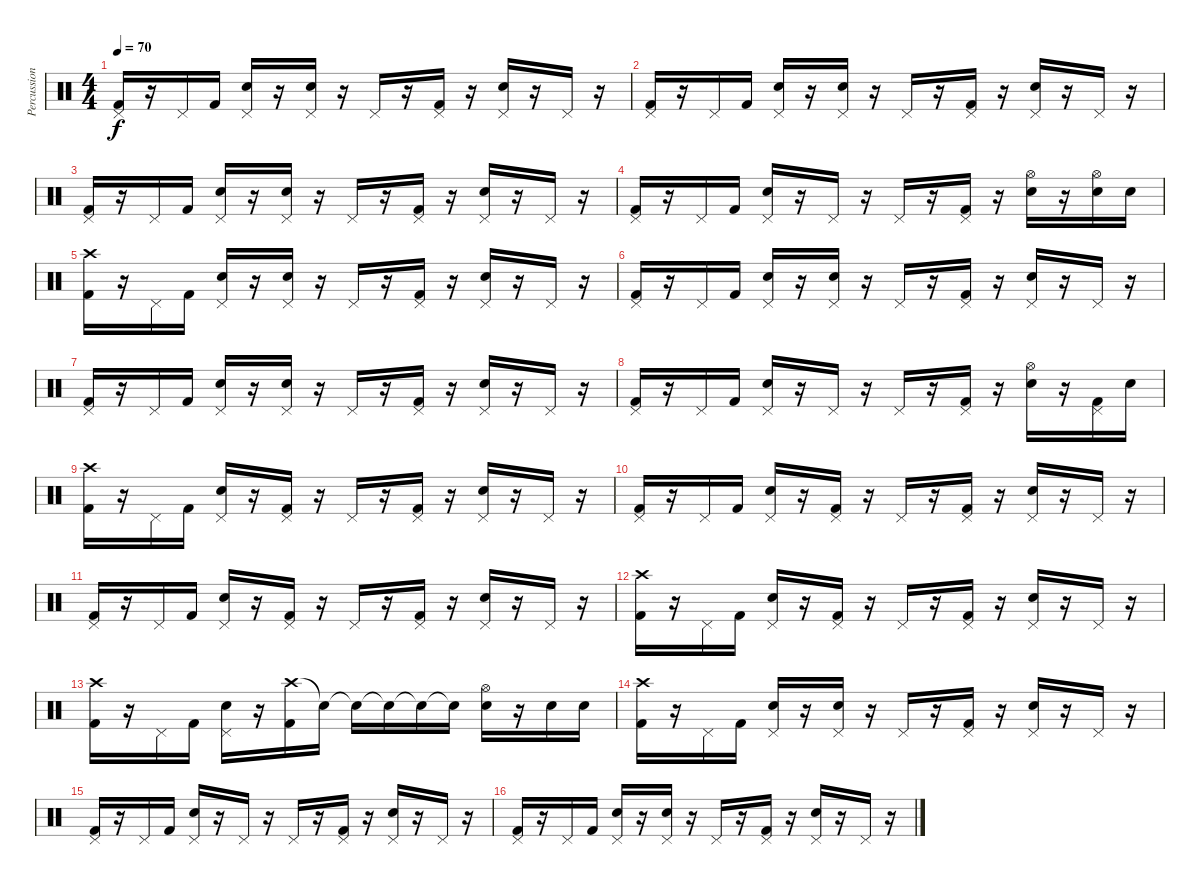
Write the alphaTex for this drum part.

\track ("Percussion" "Percussion") {instrument percussion}
\staff {score}
\articulation defaults
\ts (4 4)
\tempo 70
\clef neutral
\ks c
("Pedal Hi-Hat (hit)" "Kick (hit) 2").16{dy f} r.16 "Pedal Hi-Hat (hit)".16 "Kick (hit) 2".16 ("Pedal Hi-Hat (hit)" "Electric Snare (hit)").16 r.16 ("Pedal Hi-Hat (hit)" "Electric Snare (hit)").16 r.16 "Pedal Hi-Hat (hit)".16 r.16 ("Pedal Hi-Hat (hit)" "Kick (hit) 2").16 r.16 ("Pedal Hi-Hat (hit)" "Electric Snare (hit)").16 r.16 "Pedal Hi-Hat (hit)".16 r.16 |
("Pedal Hi-Hat (hit)" "Kick (hit) 2").16 r.16 "Pedal Hi-Hat (hit)".16 "Kick (hit) 2".16 ("Pedal Hi-Hat (hit)" "Electric Snare (hit)").16 r.16 ("Pedal Hi-Hat (hit)" "Electric Snare (hit)").16 r.16 "Pedal Hi-Hat (hit)".16 r.16 ("Pedal Hi-Hat (hit)" "Kick (hit) 2").16 r.16 ("Pedal Hi-Hat (hit)" "Electric Snare (hit)").16 r.16 "Pedal Hi-Hat (hit)".16 r.16 |
("Pedal Hi-Hat (hit)" "Kick (hit) 2").16 r.16 "Pedal Hi-Hat (hit)".16 "Kick (hit) 2".16 ("Pedal Hi-Hat (hit)" "Electric Snare (hit)").16 r.16 ("Pedal Hi-Hat (hit)" "Electric Snare (hit)").16 r.16 "Pedal Hi-Hat (hit)".16 r.16 ("Pedal Hi-Hat (hit)" "Kick (hit) 2").16 r.16 ("Pedal Hi-Hat (hit)" "Electric Snare (hit)").16 r.16 "Pedal Hi-Hat (hit)".16 r.16 |
("Pedal Hi-Hat (hit)" "Kick (hit) 2").16 r.16 "Pedal Hi-Hat (hit)".16 "Kick (hit) 2".16 ("Pedal Hi-Hat (hit)" "Electric Snare (hit)").16 r.16 "Pedal Hi-Hat (hit)".16 r.16 "Pedal Hi-Hat (hit)".16 r.16 ("Pedal Hi-Hat (hit)" "Kick (hit) 2").16 r.16 ("Hi-Hat (open)" "Electric Snare (hit)").16 r.16 ("Hi-Hat (open)" "Electric Snare (hit)").16 "Electric Snare (hit)".16 |
("Crash high (hit)" "Kick (hit) 2").16 r.16 "Pedal Hi-Hat (hit)".16 "Kick (hit) 2".16 ("Pedal Hi-Hat (hit)" "Electric Snare (hit)").16 r.16 ("Pedal Hi-Hat (hit)" "Electric Snare (hit)").16 r.16 "Pedal Hi-Hat (hit)".16 r.16 ("Pedal Hi-Hat (hit)" "Kick (hit) 2").16 r.16 ("Pedal Hi-Hat (hit)" "Electric Snare (hit)").16 r.16 "Pedal Hi-Hat (hit)".16 r.16 |
("Pedal Hi-Hat (hit)" "Kick (hit) 2").16 r.16 "Pedal Hi-Hat (hit)".16 "Kick (hit) 2".16 ("Pedal Hi-Hat (hit)" "Electric Snare (hit)").16 r.16 ("Pedal Hi-Hat (hit)" "Electric Snare (hit)").16 r.16 "Pedal Hi-Hat (hit)".16 r.16 ("Pedal Hi-Hat (hit)" "Kick (hit) 2").16 r.16 ("Pedal Hi-Hat (hit)" "Electric Snare (hit)").16 r.16 "Pedal Hi-Hat (hit)".16 r.16 |
("Pedal Hi-Hat (hit)" "Kick (hit) 2").16 r.16 "Pedal Hi-Hat (hit)".16 "Kick (hit) 2".16 ("Pedal Hi-Hat (hit)" "Electric Snare (hit)").16 r.16 ("Pedal Hi-Hat (hit)" "Electric Snare (hit)").16 r.16 "Pedal Hi-Hat (hit)".16 r.16 ("Pedal Hi-Hat (hit)" "Kick (hit) 2").16 r.16 ("Pedal Hi-Hat (hit)" "Electric Snare (hit)").16 r.16 "Pedal Hi-Hat (hit)".16 r.16 |
("Pedal Hi-Hat (hit)" "Kick (hit) 2").16 r.16 "Pedal Hi-Hat (hit)".16 "Kick (hit) 2".16 ("Pedal Hi-Hat (hit)" "Electric Snare (hit)").16 r.16 "Pedal Hi-Hat (hit)".16 r.16 "Pedal Hi-Hat (hit)".16 r.16 ("Pedal Hi-Hat (hit)" "Kick (hit) 2").16 r.16 ("Hi-Hat (open)" "Electric Snare (hit)").16 r.16 ("Pedal Hi-Hat (hit)" "Kick (hit) 2").16 "Electric Snare (hit)".16 |
("Crash high (hit)" "Kick (hit) 2").16 r.16 "Pedal Hi-Hat (hit)".16 "Kick (hit) 2".16 ("Pedal Hi-Hat (hit)" "Electric Snare (hit)").16 r.16 ("Pedal Hi-Hat (hit)" "Kick (hit) 2").16 r.16 "Pedal Hi-Hat (hit)".16 r.16 ("Pedal Hi-Hat (hit)" "Kick (hit) 2").16 r.16 ("Pedal Hi-Hat (hit)" "Electric Snare (hit)").16 r.16 "Pedal Hi-Hat (hit)".16 r.16 |
("Pedal Hi-Hat (hit)" "Kick (hit) 2").16 r.16 "Pedal Hi-Hat (hit)".16 "Kick (hit) 2".16 ("Pedal Hi-Hat (hit)" "Electric Snare (hit)").16 r.16 ("Pedal Hi-Hat (hit)" "Kick (hit) 2").16 r.16 "Pedal Hi-Hat (hit)".16 r.16 ("Pedal Hi-Hat (hit)" "Kick (hit) 2").16 r.16 ("Pedal Hi-Hat (hit)" "Electric Snare (hit)").16 r.16 "Pedal Hi-Hat (hit)".16 r.16 |
("Pedal Hi-Hat (hit)" "Kick (hit) 2").16 r.16 "Pedal Hi-Hat (hit)".16 "Kick (hit) 2".16 ("Pedal Hi-Hat (hit)" "Electric Snare (hit)").16 r.16 ("Pedal Hi-Hat (hit)" "Kick (hit) 2").16 r.16 "Pedal Hi-Hat (hit)".16 r.16 ("Pedal Hi-Hat (hit)" "Kick (hit) 2").16 r.16 ("Pedal Hi-Hat (hit)" "Electric Snare (hit)").16 r.16 "Pedal Hi-Hat (hit)".16 r.16 |
("Crash high (hit)" "Kick (hit) 2").16 r.16 "Pedal Hi-Hat (hit)".16 "Kick (hit) 2".16 ("Pedal Hi-Hat (hit)" "Electric Snare (hit)").16 r.16 ("Pedal Hi-Hat (hit)" "Kick (hit) 2").16 r.16 "Pedal Hi-Hat (hit)".16 r.16 ("Pedal Hi-Hat (hit)" "Kick (hit) 2").16 r.16 ("Pedal Hi-Hat (hit)" "Electric Snare (hit)").16 r.16 "Pedal Hi-Hat (hit)".16 r.16 |
("Crash high (hit)" "Kick (hit) 2").16 r.16 "Pedal Hi-Hat (hit)".16 "Kick (hit) 2".16 ("Pedal Hi-Hat (hit)" "Electric Snare (hit)").16 r.16 ("Crash high (hit)" "Kick (hit) 2").16 "Snare (hit)"{t}.16 "Snare (hit)"{t}.16 "Snare (hit)"{t}.16 "Snare (hit)"{t}.16 "Snare (hit)"{t}.16 ("Hi-Hat (open)" "Electric Snare (hit)").16 r.16 "Electric Snare (hit)".16 "Electric Snare (hit)".16 |
("Crash high (hit)" "Kick (hit) 2").16 r.16 "Pedal Hi-Hat (hit)".16 "Kick (hit) 2".16 ("Pedal Hi-Hat (hit)" "Electric Snare (hit)").16 r.16 ("Pedal Hi-Hat (hit)" "Electric Snare (hit)").16 r.16 "Pedal Hi-Hat (hit)".16 r.16 ("Pedal Hi-Hat (hit)" "Kick (hit) 2").16 r.16 ("Pedal Hi-Hat (hit)" "Electric Snare (hit)").16 r.16 "Pedal Hi-Hat (hit)".16 r.16 |
("Pedal Hi-Hat (hit)" "Kick (hit) 2").16 r.16 "Pedal Hi-Hat (hit)".16 "Kick (hit) 2".16 ("Pedal Hi-Hat (hit)" "Electric Snare (hit)").16 r.16 "Pedal Hi-Hat (hit)".16 r.16 "Pedal Hi-Hat (hit)".16 r.16 ("Pedal Hi-Hat (hit)" "Kick (hit) 2").16 r.16 ("Pedal Hi-Hat (hit)" "Electric Snare (hit)").16 r.16 "Pedal Hi-Hat (hit)".16 r.16 |
("Pedal Hi-Hat (hit)" "Kick (hit) 2").16 r.16 "Pedal Hi-Hat (hit)".16 "Kick (hit) 2".16 ("Pedal Hi-Hat (hit)" "Electric Snare (hit)").16 r.16 ("Pedal Hi-Hat (hit)" "Electric Snare (hit)").16 r.16 "Pedal Hi-Hat (hit)".16 r.16 ("Pedal Hi-Hat (hit)" "Kick (hit) 2").16 r.16 ("Pedal Hi-Hat (hit)" "Electric Snare (hit)").16 r.16 "Pedal Hi-Hat (hit)".16 r.16
